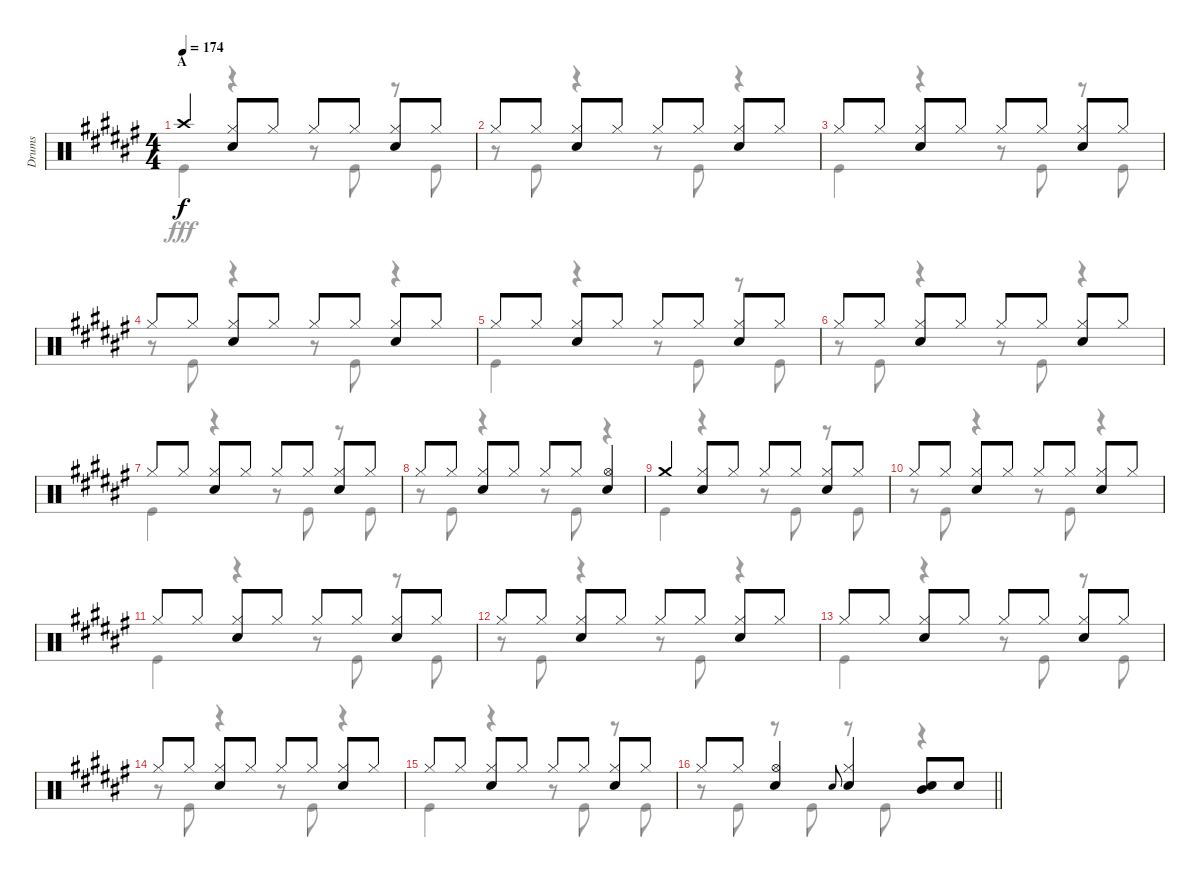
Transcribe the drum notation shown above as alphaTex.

\track ("Drums" "Drums") {instrument percussion}
\staff {score}
\articulation defaults
\voice
\ts (4 4)
\section ("" "A")
\tempo 174
\clef neutral
\ks f# "Crash high (hit)".4{dy f}
("Hi-Hat (closed)" "Snare (hit) 2").8 "Hi-Hat (closed)".8 "Hi-Hat (closed)".8 "Hi-Hat (closed)".8 ("Hi-Hat (closed)" "Snare (hit) 2").8 "Hi-Hat (closed)".8 |
"Hi-Hat (closed)".8 "Hi-Hat (closed)".8 ("Hi-Hat (closed)" "Snare (hit) 2").8 "Hi-Hat (closed)".8 "Hi-Hat (closed)".8 "Hi-Hat (closed)".8 ("Hi-Hat (closed)" "Snare (hit) 2").8 "Hi-Hat (closed)".8 |
"Hi-Hat (closed)".8 "Hi-Hat (closed)".8 ("Hi-Hat (closed)" "Snare (hit) 2").8 "Hi-Hat (closed)".8 "Hi-Hat (closed)".8 "Hi-Hat (closed)".8 ("Hi-Hat (closed)" "Snare (hit) 2").8 "Hi-Hat (closed)".8 |
"Hi-Hat (closed)".8 "Hi-Hat (closed)".8 ("Hi-Hat (closed)" "Snare (hit) 2").8 "Hi-Hat (closed)".8 "Hi-Hat (closed)".8 "Hi-Hat (closed)".8 ("Hi-Hat (closed)" "Snare (hit) 2").8 "Hi-Hat (closed)".8 |
"Hi-Hat (closed)".8 "Hi-Hat (closed)".8 ("Hi-Hat (closed)" "Snare (hit) 2").8 "Hi-Hat (closed)".8 "Hi-Hat (closed)".8 "Hi-Hat (closed)".8 ("Hi-Hat (closed)" "Snare (hit) 2").8 "Hi-Hat (closed)".8 |
"Hi-Hat (closed)".8 "Hi-Hat (closed)".8 ("Hi-Hat (closed)" "Snare (hit) 2").8 "Hi-Hat (closed)".8 "Hi-Hat (closed)".8 "Hi-Hat (closed)".8 ("Hi-Hat (closed)" "Snare (hit) 2").8 "Hi-Hat (closed)".8 |
"Hi-Hat (closed)".8 "Hi-Hat (closed)".8 ("Hi-Hat (closed)" "Snare (hit) 2").8 "Hi-Hat (closed)".8 "Hi-Hat (closed)".8 "Hi-Hat (closed)".8 ("Hi-Hat (closed)" "Snare (hit) 2").8 "Hi-Hat (closed)".8 |
"Hi-Hat (closed)".8 "Hi-Hat (closed)".8 ("Hi-Hat (closed)" "Snare (hit) 2").8 "Hi-Hat (closed)".8 "Hi-Hat (closed)".8 "Hi-Hat (closed)".8 ("Hi-Hat (open)" "Snare (hit) 2").4 |
"Crash medium (hit)".4 ("Hi-Hat (closed)" "Snare (hit) 2").8 "Hi-Hat (closed)".8 "Hi-Hat (closed)".8 "Hi-Hat (closed)".8 ("Hi-Hat (closed)" "Snare (hit) 2").8 "Hi-Hat (closed)".8 |
"Hi-Hat (closed)".8 "Hi-Hat (closed)".8 ("Hi-Hat (closed)" "Snare (hit) 2").8 "Hi-Hat (closed)".8 "Hi-Hat (closed)".8 "Hi-Hat (closed)".8 ("Hi-Hat (closed)" "Snare (hit) 2").8 "Hi-Hat (closed)".8 |
"Hi-Hat (closed)".8 "Hi-Hat (closed)".8 ("Hi-Hat (closed)" "Snare (hit) 2").8 "Hi-Hat (closed)".8 "Hi-Hat (closed)".8 "Hi-Hat (closed)".8 ("Hi-Hat (closed)" "Snare (hit) 2").8 "Hi-Hat (closed)".8 |
"Hi-Hat (closed)".8 "Hi-Hat (closed)".8 ("Hi-Hat (closed)" "Snare (hit) 2").8 "Hi-Hat (closed)".8 "Hi-Hat (closed)".8 "Hi-Hat (closed)".8 ("Hi-Hat (closed)" "Snare (hit) 2").8 "Hi-Hat (closed)".8 |
"Hi-Hat (closed)".8 "Hi-Hat (closed)".8 ("Hi-Hat (closed)" "Snare (hit) 2").8 "Hi-Hat (closed)".8 "Hi-Hat (closed)".8 "Hi-Hat (closed)".8 ("Hi-Hat (closed)" "Snare (hit) 2").8 "Hi-Hat (closed)".8 |
"Hi-Hat (closed)".8 "Hi-Hat (closed)".8 ("Hi-Hat (closed)" "Snare (hit) 2").8 "Hi-Hat (closed)".8 "Hi-Hat (closed)".8 "Hi-Hat (closed)".8 ("Hi-Hat (closed)" "Snare (hit) 2").8 "Hi-Hat (closed)".8 |
"Hi-Hat (closed)".8 "Hi-Hat (closed)".8 ("Hi-Hat (closed)" "Snare (hit) 2").8 "Hi-Hat (closed)".8 "Hi-Hat (closed)".8 "Hi-Hat (closed)".8 ("Hi-Hat (closed)" "Snare (hit) 2").8 "Hi-Hat (closed)".8 |
\barLineRight lightlight "Hi-Hat (closed)".8 "Hi-Hat (closed)".8
("Hi-Hat (open)" "Snare (hit) 2").4 "Snare (hit) 2".8{gr onbeat} ("Hi-Hat (closed)" "Snare (hit) 2").4 ("Mid Tom (hit)" "Snare (hit) 2").8 "Snare (hit) 2".8
\voice
\clef neutral
\ottava regular
\simile none
\ks f# "Kick (hit)".4{dy fff}
r.4 r.8 "Kick (hit)".8 r.8 "Kick (hit)".8 |
r.8 "Kick (hit)".8 r.4 r.8 "Kick (hit)".8 r.4 |
"Kick (hit)".4 r.4 r.8 "Kick (hit)".8 r.8 "Kick (hit)".8 |
r.8 "Kick (hit)".8 r.4 r.8 "Kick (hit)".8 r.4 |
"Kick (hit)".4 r.4 r.8 "Kick (hit)".8 r.8 "Kick (hit)".8 |
r.8 "Kick (hit)".8 r.4 r.8 "Kick (hit)".8 r.4 |
"Kick (hit)".4 r.4 r.8 "Kick (hit)".8 r.8 "Kick (hit)".8 |
r.8 "Kick (hit)".8 r.4 r.8 "Kick (hit)".8 r.4 |
"Kick (hit)".4 r.4 r.8 "Kick (hit)".8 r.8 "Kick (hit)".8 |
r.8 "Kick (hit)".8 r.4 r.8 "Kick (hit)".8 r.4 |
"Kick (hit)".4 r.4 r.8 "Kick (hit)".8 r.8 "Kick (hit)".8 |
r.8 "Kick (hit)".8 r.4 r.8 "Kick (hit)".8 r.4 |
"Kick (hit)".4 r.4 r.8 "Kick (hit)".8 r.8 "Kick (hit)".8 |
r.8 "Kick (hit)".8 r.4 r.8 "Kick (hit)".8 r.4 |
"Kick (hit)".4 r.4 r.8 "Kick (hit)".8 r.8 "Kick (hit)".8 |
\barLineRight lightlight
r.8 "Kick (hit)".8 r.8 "Kick (hit)".8 r.8 "Kick (hit)".8 r.4
